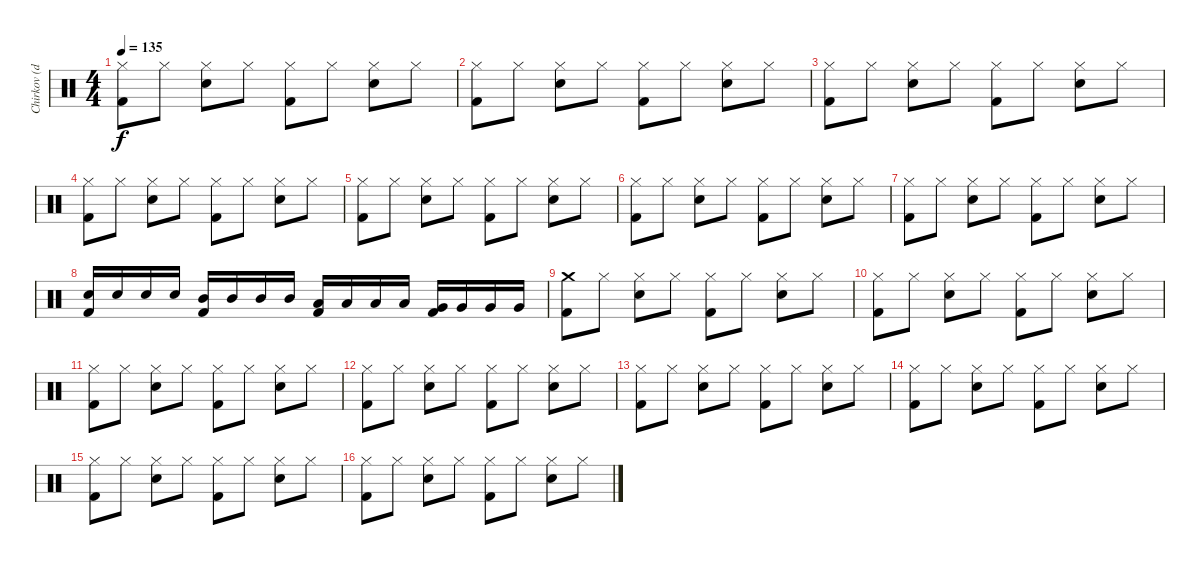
\track ("Chirkov (drums)" "Chirkov (d") {instrument percussion}
\staff {score}
\articulation defaults
\ts (4 4)
\tempo 135
\clef neutral
\ks c
("Hi-Hat (closed)" "Kick (hit) 2").8{dy f} "Hi-Hat (closed)".8 ("Hi-Hat (closed)" "Snare (hit) 2").8 "Hi-Hat (closed)".8 ("Hi-Hat (closed)" "Kick (hit) 2").8 "Hi-Hat (closed)".8 ("Hi-Hat (closed)" "Snare (hit) 2").8 "Hi-Hat (closed)".8 |
("Hi-Hat (closed)" "Kick (hit) 2").8 "Hi-Hat (closed)".8 ("Hi-Hat (closed)" "Snare (hit) 2").8 "Hi-Hat (closed)".8 ("Hi-Hat (closed)" "Kick (hit) 2").8 "Hi-Hat (closed)".8 ("Hi-Hat (closed)" "Snare (hit) 2").8 "Hi-Hat (closed)".8 |
("Hi-Hat (closed)" "Kick (hit) 2").8 "Hi-Hat (closed)".8 ("Hi-Hat (closed)" "Snare (hit) 2").8 "Hi-Hat (closed)".8 ("Hi-Hat (closed)" "Kick (hit) 2").8 "Hi-Hat (closed)".8 ("Hi-Hat (closed)" "Snare (hit) 2").8 "Hi-Hat (closed)".8 |
("Hi-Hat (closed)" "Kick (hit) 2").8 "Hi-Hat (closed)".8 ("Hi-Hat (closed)" "Snare (hit) 2").8 "Hi-Hat (closed)".8 ("Hi-Hat (closed)" "Kick (hit) 2").8 "Hi-Hat (closed)".8 ("Hi-Hat (closed)" "Snare (hit) 2").8 "Hi-Hat (closed)".8 |
("Hi-Hat (closed)" "Kick (hit) 2").8 "Hi-Hat (closed)".8 ("Hi-Hat (closed)" "Snare (hit) 2").8 "Hi-Hat (closed)".8 ("Hi-Hat (closed)" "Kick (hit) 2").8 "Hi-Hat (closed)".8 ("Hi-Hat (closed)" "Snare (hit) 2").8 "Hi-Hat (closed)".8 |
("Hi-Hat (closed)" "Kick (hit) 2").8 "Hi-Hat (closed)".8 ("Hi-Hat (closed)" "Snare (hit) 2").8 "Hi-Hat (closed)".8 ("Hi-Hat (closed)" "Kick (hit) 2").8 "Hi-Hat (closed)".8 ("Hi-Hat (closed)" "Snare (hit) 2").8 "Hi-Hat (closed)".8 |
("Hi-Hat (closed)" "Kick (hit) 2").8 "Hi-Hat (closed)".8 ("Hi-Hat (closed)" "Snare (hit) 2").8 "Hi-Hat (closed)".8 ("Hi-Hat (closed)" "Kick (hit) 2").8 "Hi-Hat (closed)".8 ("Hi-Hat (closed)" "Snare (hit) 2").8 "Hi-Hat (closed)".8 |
("Snare (hit) 2" "Kick (hit) 2").16 "Snare (hit) 2".16 "Snare (hit) 2".16 "Snare (hit) 2".16 ("Mid Tom (hit)" "Kick (hit) 2").16 "Mid Tom (hit)".16 "Mid Tom (hit)".16 "Mid Tom (hit)".16 ("Low Tom (hit)" "Kick (hit) 2").16 "Low Tom (hit)".16 "Low Tom (hit)".16 "Low Tom (hit)".16 ("Very Low Tom (hit)" "Kick (hit) 2").16 "Very Low Tom (hit)".16 "Very Low Tom (hit)".16 "Very Low Tom (hit)".16 |
("Crash medium (hit)" "Kick (hit) 2").8 "Hi-Hat (closed)".8 ("Hi-Hat (closed)" "Snare (hit) 2").8 "Hi-Hat (closed)".8 ("Hi-Hat (closed)" "Kick (hit) 2").8 "Hi-Hat (closed)".8 ("Hi-Hat (closed)" "Snare (hit) 2").8 "Hi-Hat (closed)".8 |
("Hi-Hat (closed)" "Kick (hit) 2").8 "Hi-Hat (closed)".8 ("Hi-Hat (closed)" "Snare (hit) 2").8 "Hi-Hat (closed)".8 ("Hi-Hat (closed)" "Kick (hit) 2").8 "Hi-Hat (closed)".8 ("Hi-Hat (closed)" "Snare (hit) 2").8 "Hi-Hat (closed)".8 |
("Hi-Hat (closed)" "Kick (hit) 2").8 "Hi-Hat (closed)".8 ("Hi-Hat (closed)" "Snare (hit) 2").8 "Hi-Hat (closed)".8 ("Hi-Hat (closed)" "Kick (hit) 2").8 "Hi-Hat (closed)".8 ("Hi-Hat (closed)" "Snare (hit) 2").8 "Hi-Hat (closed)".8 |
("Hi-Hat (closed)" "Kick (hit) 2").8 "Hi-Hat (closed)".8 ("Hi-Hat (closed)" "Snare (hit) 2").8 "Hi-Hat (closed)".8 ("Hi-Hat (closed)" "Kick (hit) 2").8 "Hi-Hat (closed)".8 ("Hi-Hat (closed)" "Snare (hit) 2").8 "Hi-Hat (closed)".8 |
("Hi-Hat (closed)" "Kick (hit) 2").8 "Hi-Hat (closed)".8 ("Hi-Hat (closed)" "Snare (hit) 2").8 "Hi-Hat (closed)".8 ("Hi-Hat (closed)" "Kick (hit) 2").8 "Hi-Hat (closed)".8 ("Hi-Hat (closed)" "Snare (hit) 2").8 "Hi-Hat (closed)".8 |
("Hi-Hat (closed)" "Kick (hit) 2").8 "Hi-Hat (closed)".8 ("Hi-Hat (closed)" "Snare (hit) 2").8 "Hi-Hat (closed)".8 ("Hi-Hat (closed)" "Kick (hit) 2").8 "Hi-Hat (closed)".8 ("Hi-Hat (closed)" "Snare (hit) 2").8 "Hi-Hat (closed)".8 |
("Hi-Hat (closed)" "Kick (hit) 2").8 "Hi-Hat (closed)".8 ("Hi-Hat (closed)" "Snare (hit) 2").8 "Hi-Hat (closed)".8 ("Hi-Hat (closed)" "Kick (hit) 2").8 "Hi-Hat (closed)".8 ("Hi-Hat (closed)" "Snare (hit) 2").8 "Hi-Hat (closed)".8 |
("Hi-Hat (closed)" "Kick (hit) 2").8 "Hi-Hat (closed)".8 ("Hi-Hat (closed)" "Snare (hit) 2").8 "Hi-Hat (closed)".8 ("Hi-Hat (closed)" "Kick (hit) 2").8 "Hi-Hat (closed)".8 ("Hi-Hat (closed)" "Snare (hit) 2").8 "Hi-Hat (closed)".8
